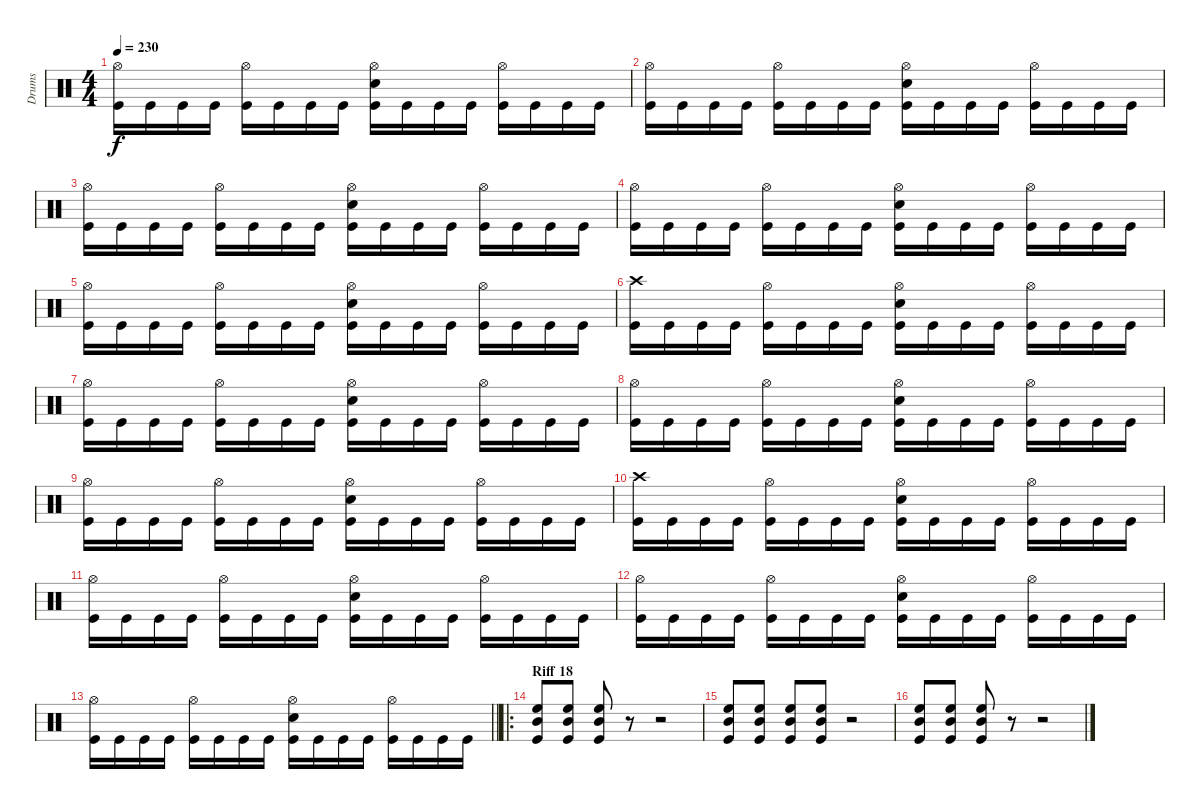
\track ("Drums" "Drums") {instrument percussion}
\staff {score}
\articulation defaults
\ts (4 4)
\tempo 230
\clef neutral
\ks c
("Hi-Hat (open)" "Kick (hit)").16{dy f} "Kick (hit)".16 "Kick (hit)".16 "Kick (hit)".16 ("Hi-Hat (open)" "Kick (hit)").16 "Kick (hit)".16 "Kick (hit)".16 "Kick (hit)".16 ("Hi-Hat (open)" "Electric Snare (hit)" "Kick (hit)").16 "Kick (hit)".16 "Kick (hit)".16 "Kick (hit)".16 ("Hi-Hat (open)" "Kick (hit)").16 "Kick (hit)".16 "Kick (hit)".16 "Kick (hit)".16 |
("Hi-Hat (open)" "Kick (hit)").16 "Kick (hit)".16 "Kick (hit)".16 "Kick (hit)".16 ("Hi-Hat (open)" "Kick (hit)").16 "Kick (hit)".16 "Kick (hit)".16 "Kick (hit)".16 ("Hi-Hat (open)" "Electric Snare (hit)" "Kick (hit)").16 "Kick (hit)".16 "Kick (hit)".16 "Kick (hit)".16 ("Hi-Hat (open)" "Kick (hit)").16 "Kick (hit)".16 "Kick (hit)".16 "Kick (hit)".16 |
("Hi-Hat (open)" "Kick (hit)").16 "Kick (hit)".16 "Kick (hit)".16 "Kick (hit)".16 ("Hi-Hat (open)" "Kick (hit)").16 "Kick (hit)".16 "Kick (hit)".16 "Kick (hit)".16 ("Hi-Hat (open)" "Electric Snare (hit)" "Kick (hit)").16 "Kick (hit)".16 "Kick (hit)".16 "Kick (hit)".16 ("Hi-Hat (open)" "Kick (hit)").16 "Kick (hit)".16 "Kick (hit)".16 "Kick (hit)".16 |
("Hi-Hat (open)" "Kick (hit)").16 "Kick (hit)".16 "Kick (hit)".16 "Kick (hit)".16 ("Hi-Hat (open)" "Kick (hit)").16 "Kick (hit)".16 "Kick (hit)".16 "Kick (hit)".16 ("Hi-Hat (open)" "Electric Snare (hit)" "Kick (hit)").16 "Kick (hit)".16 "Kick (hit)".16 "Kick (hit)".16 ("Hi-Hat (open)" "Kick (hit)").16 "Kick (hit)".16 "Kick (hit)".16 "Kick (hit)".16 |
("Hi-Hat (open)" "Kick (hit)").16 "Kick (hit)".16 "Kick (hit)".16 "Kick (hit)".16 ("Hi-Hat (open)" "Kick (hit)").16 "Kick (hit)".16 "Kick (hit)".16 "Kick (hit)".16 ("Hi-Hat (open)" "Electric Snare (hit)" "Kick (hit)").16 "Kick (hit)".16 "Kick (hit)".16 "Kick (hit)".16 ("Hi-Hat (open)" "Kick (hit)").16 "Kick (hit)".16 "Kick (hit)".16 "Kick (hit)".16 |
("Crash high (hit)" "Kick (hit)").16 "Kick (hit)".16 "Kick (hit)".16 "Kick (hit)".16 ("Hi-Hat (open)" "Kick (hit)").16 "Kick (hit)".16 "Kick (hit)".16 "Kick (hit)".16 ("Hi-Hat (open)" "Electric Snare (hit)" "Kick (hit)").16 "Kick (hit)".16 "Kick (hit)".16 "Kick (hit)".16 ("Hi-Hat (open)" "Kick (hit)").16 "Kick (hit)".16 "Kick (hit)".16 "Kick (hit)".16 |
("Hi-Hat (open)" "Kick (hit)").16 "Kick (hit)".16 "Kick (hit)".16 "Kick (hit)".16 ("Hi-Hat (open)" "Kick (hit)").16 "Kick (hit)".16 "Kick (hit)".16 "Kick (hit)".16 ("Hi-Hat (open)" "Electric Snare (hit)" "Kick (hit)").16 "Kick (hit)".16 "Kick (hit)".16 "Kick (hit)".16 ("Hi-Hat (open)" "Kick (hit)").16 "Kick (hit)".16 "Kick (hit)".16 "Kick (hit)".16 |
("Hi-Hat (open)" "Kick (hit)").16 "Kick (hit)".16 "Kick (hit)".16 "Kick (hit)".16 ("Hi-Hat (open)" "Kick (hit)").16 "Kick (hit)".16 "Kick (hit)".16 "Kick (hit)".16 ("Hi-Hat (open)" "Electric Snare (hit)" "Kick (hit)").16 "Kick (hit)".16 "Kick (hit)".16 "Kick (hit)".16 ("Hi-Hat (open)" "Kick (hit)").16 "Kick (hit)".16 "Kick (hit)".16 "Kick (hit)".16 |
("Hi-Hat (open)" "Kick (hit)").16 "Kick (hit)".16 "Kick (hit)".16 "Kick (hit)".16 ("Hi-Hat (open)" "Kick (hit)").16 "Kick (hit)".16 "Kick (hit)".16 "Kick (hit)".16 ("Hi-Hat (open)" "Electric Snare (hit)" "Kick (hit)").16 "Kick (hit)".16 "Kick (hit)".16 "Kick (hit)".16 ("Hi-Hat (open)" "Kick (hit)").16 "Kick (hit)".16 "Kick (hit)".16 "Kick (hit)".16 |
("Crash high (hit)" "Kick (hit)").16 "Kick (hit)".16 "Kick (hit)".16 "Kick (hit)".16 ("Hi-Hat (open)" "Kick (hit)").16 "Kick (hit)".16 "Kick (hit)".16 "Kick (hit)".16 ("Hi-Hat (open)" "Electric Snare (hit)" "Kick (hit)").16 "Kick (hit)".16 "Kick (hit)".16 "Kick (hit)".16 ("Hi-Hat (open)" "Kick (hit)").16 "Kick (hit)".16 "Kick (hit)".16 "Kick (hit)".16 |
("Hi-Hat (open)" "Kick (hit)").16 "Kick (hit)".16 "Kick (hit)".16 "Kick (hit)".16 ("Hi-Hat (open)" "Kick (hit)").16 "Kick (hit)".16 "Kick (hit)".16 "Kick (hit)".16 ("Hi-Hat (open)" "Electric Snare (hit)" "Kick (hit)").16 "Kick (hit)".16 "Kick (hit)".16 "Kick (hit)".16 ("Hi-Hat (open)" "Kick (hit)").16 "Kick (hit)".16 "Kick (hit)".16 "Kick (hit)".16 |
("Hi-Hat (open)" "Kick (hit)").16 "Kick (hit)".16 "Kick (hit)".16 "Kick (hit)".16 ("Hi-Hat (open)" "Kick (hit)").16 "Kick (hit)".16 "Kick (hit)".16 "Kick (hit)".16 ("Hi-Hat (open)" "Electric Snare (hit)" "Kick (hit)").16 "Kick (hit)".16 "Kick (hit)".16 "Kick (hit)".16 ("Hi-Hat (open)" "Kick (hit)").16 "Kick (hit)".16 "Kick (hit)".16 "Kick (hit)".16 |
\barLineRight lightlight
("Hi-Hat (open)" "Kick (hit)").16 "Kick (hit)".16 "Kick (hit)".16 "Kick (hit)".16 ("Hi-Hat (open)" "Kick (hit)").16 "Kick (hit)".16 "Kick (hit)".16 "Kick (hit)".16 ("Hi-Hat (open)" "Electric Snare (hit)" "Kick (hit)").16 "Kick (hit)".16 "Kick (hit)".16 "Kick (hit)".16 ("Hi-Hat (open)" "Kick (hit)").16 "Kick (hit)".16 "Kick (hit)".16 "Kick (hit)".16 |
\ro
\section ("" "Riff 18")
("Mid Tom (hit)" "High Floor Tom (hit)" "Kick (hit)").8 ("Mid Tom (hit)" "High Floor Tom (hit)" "Kick (hit)").8 ("Mid Tom (hit)" "High Floor Tom (hit)" "Kick (hit)").8 r.8 r.2 |
("Mid Tom (hit)" "High Floor Tom (hit)" "Kick (hit)").8 ("Mid Tom (hit)" "High Floor Tom (hit)" "Kick (hit)").8 ("Mid Tom (hit)" "High Floor Tom (hit)" "Kick (hit)").8 ("Mid Tom (hit)" "High Floor Tom (hit)" "Kick (hit)").8 r.2 |
("Mid Tom (hit)" "High Floor Tom (hit)" "Kick (hit)").8 ("Mid Tom (hit)" "High Floor Tom (hit)" "Kick (hit)").8 ("Mid Tom (hit)" "High Floor Tom (hit)" "Kick (hit)").8 r.8 r.2
